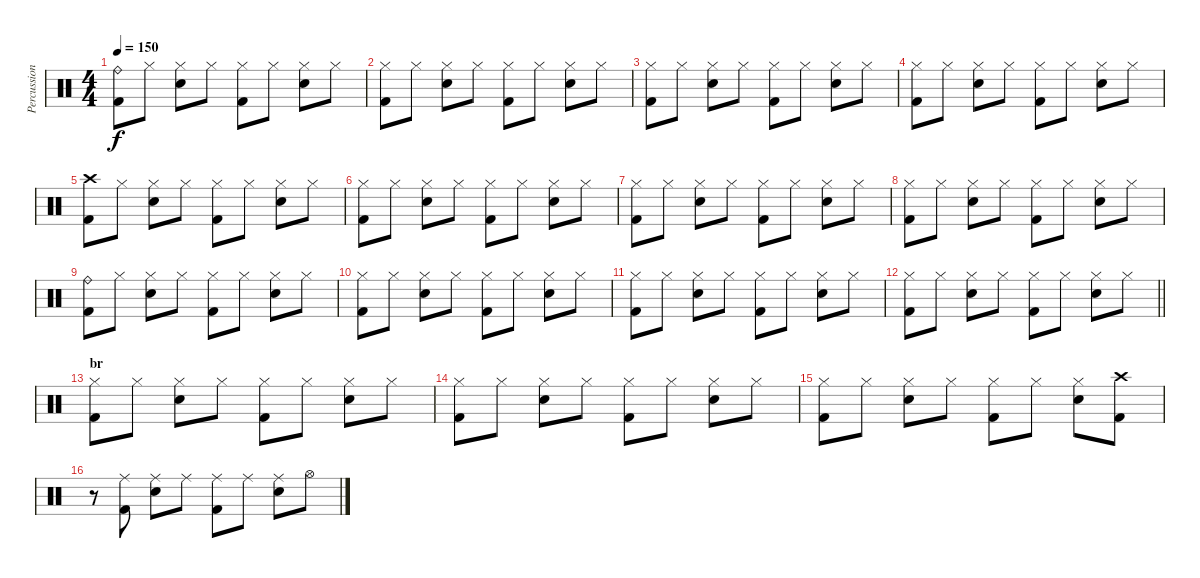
\track ("Percussion" "Percussion") {instrument percussion}
\staff {score}
\articulation defaults
\ts (4 4)
\tempo 150
\clef neutral
\ks c
("Ride (bell)" "Kick (hit) 2").8{dy f} "Hi-Hat (closed)".8 ("Hi-Hat (closed)" "Electric Snare (hit)").8 "Hi-Hat (closed)".8 ("Hi-Hat (closed)" "Kick (hit) 2").8 "Hi-Hat (closed)".8 ("Hi-Hat (closed)" "Electric Snare (hit)").8 "Hi-Hat (closed)".8 |
("Hi-Hat (closed)" "Kick (hit) 2").8 "Hi-Hat (closed)".8 ("Hi-Hat (closed)" "Electric Snare (hit)").8 "Hi-Hat (closed)".8 ("Hi-Hat (closed)" "Kick (hit) 2").8 "Hi-Hat (closed)".8 ("Hi-Hat (closed)" "Electric Snare (hit)").8 "Hi-Hat (closed)".8 |
("Hi-Hat (closed)" "Kick (hit) 2").8 "Hi-Hat (closed)".8 ("Hi-Hat (closed)" "Electric Snare (hit)").8 "Hi-Hat (closed)".8 ("Hi-Hat (closed)" "Kick (hit) 2").8 "Hi-Hat (closed)".8 ("Hi-Hat (closed)" "Electric Snare (hit)").8 "Hi-Hat (closed)".8 |
("Hi-Hat (closed)" "Kick (hit) 2").8 "Hi-Hat (closed)".8 ("Hi-Hat (closed)" "Electric Snare (hit)").8 "Hi-Hat (closed)".8 ("Hi-Hat (closed)" "Kick (hit) 2").8 "Hi-Hat (closed)".8 ("Hi-Hat (closed)" "Electric Snare (hit)").8 "Hi-Hat (closed)".8 |
("Crash high (hit)" "Kick (hit) 2").8 "Hi-Hat (closed)".8 ("Hi-Hat (closed)" "Electric Snare (hit)").8 "Hi-Hat (closed)".8 ("Hi-Hat (closed)" "Kick (hit) 2").8 "Hi-Hat (closed)".8 ("Hi-Hat (closed)" "Electric Snare (hit)").8 "Hi-Hat (closed)".8 |
("Hi-Hat (closed)" "Kick (hit) 2").8 "Hi-Hat (closed)".8 ("Hi-Hat (closed)" "Electric Snare (hit)").8 "Hi-Hat (closed)".8 ("Hi-Hat (closed)" "Kick (hit) 2").8 "Hi-Hat (closed)".8 ("Hi-Hat (closed)" "Electric Snare (hit)").8 "Hi-Hat (closed)".8 |
("Hi-Hat (closed)" "Kick (hit) 2").8 "Hi-Hat (closed)".8 ("Hi-Hat (closed)" "Electric Snare (hit)").8 "Hi-Hat (closed)".8 ("Hi-Hat (closed)" "Kick (hit) 2").8 "Hi-Hat (closed)".8 ("Hi-Hat (closed)" "Electric Snare (hit)").8 "Hi-Hat (closed)".8 |
("Hi-Hat (closed)" "Kick (hit) 2").8 "Hi-Hat (closed)".8 ("Hi-Hat (closed)" "Electric Snare (hit)").8 "Hi-Hat (closed)".8 ("Hi-Hat (closed)" "Kick (hit) 2").8 "Hi-Hat (closed)".8 ("Hi-Hat (closed)" "Electric Snare (hit)").8 "Hi-Hat (closed)".8 |
("Ride (bell)" "Kick (hit) 2").8 "Hi-Hat (closed)".8 ("Hi-Hat (closed)" "Electric Snare (hit)").8 "Hi-Hat (closed)".8 ("Hi-Hat (closed)" "Kick (hit) 2").8 "Hi-Hat (closed)".8 ("Hi-Hat (closed)" "Electric Snare (hit)").8 "Hi-Hat (closed)".8 |
("Hi-Hat (closed)" "Kick (hit) 2").8 "Hi-Hat (closed)".8 ("Hi-Hat (closed)" "Electric Snare (hit)").8 "Hi-Hat (closed)".8 ("Hi-Hat (closed)" "Kick (hit) 2").8 "Hi-Hat (closed)".8 ("Hi-Hat (closed)" "Electric Snare (hit)").8 "Hi-Hat (closed)".8 |
("Hi-Hat (closed)" "Kick (hit) 2").8 "Hi-Hat (closed)".8 ("Hi-Hat (closed)" "Electric Snare (hit)").8 "Hi-Hat (closed)".8 ("Hi-Hat (closed)" "Kick (hit) 2").8 "Hi-Hat (closed)".8 ("Hi-Hat (closed)" "Electric Snare (hit)").8 "Hi-Hat (closed)".8 |
\barLineRight lightlight
("Hi-Hat (closed)" "Kick (hit) 2").8 "Hi-Hat (closed)".8 ("Hi-Hat (closed)" "Electric Snare (hit)").8 "Hi-Hat (closed)".8 ("Hi-Hat (closed)" "Kick (hit) 2").8 "Hi-Hat (closed)".8 ("Hi-Hat (closed)" "Electric Snare (hit)").8 "Hi-Hat (closed)".8 |
\section ("" "br")
("Hi-Hat (closed)" "Kick (hit) 2").8 "Hi-Hat (closed)".8 ("Hi-Hat (closed)" "Electric Snare (hit)").8 "Hi-Hat (closed)".8 ("Hi-Hat (closed)" "Kick (hit) 2").8 "Hi-Hat (closed)".8 ("Hi-Hat (closed)" "Electric Snare (hit)").8 "Hi-Hat (closed)".8 |
("Hi-Hat (closed)" "Kick (hit) 2").8 "Hi-Hat (closed)".8 ("Hi-Hat (closed)" "Electric Snare (hit)").8 "Hi-Hat (closed)".8 ("Hi-Hat (closed)" "Kick (hit) 2").8 "Hi-Hat (closed)".8 ("Hi-Hat (closed)" "Electric Snare (hit)").8 "Hi-Hat (closed)".8 |
("Hi-Hat (closed)" "Kick (hit) 2").8 "Hi-Hat (closed)".8 ("Hi-Hat (closed)" "Electric Snare (hit)").8 "Hi-Hat (closed)".8 ("Hi-Hat (closed)" "Kick (hit) 2").8 "Hi-Hat (closed)".8 ("Hi-Hat (closed)" "Electric Snare (hit)").8 ("Crash high (hit)" "Kick (hit) 2").8 |
r.8 ("Ride (middle)" "Kick (hit) 2").8 ("Ride (middle)" "Electric Snare (hit)").8 "Ride (middle)".8 ("Ride (middle)" "Kick (hit) 2").8 "Ride (middle)".8 ("Ride (middle)" "Electric Snare (hit)").8 "Hi-Hat (open)".8
